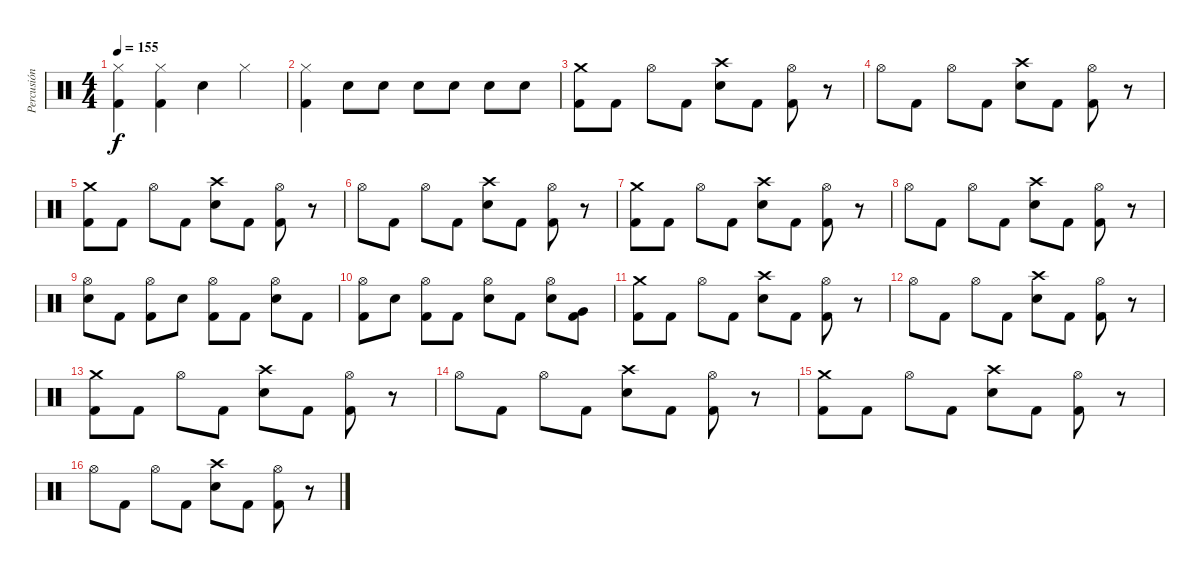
\track ("Percusión" "Percusión") {instrument percussion}
\staff {score}
\articulation defaults
\ts (4 4)
\tempo 155
\clef neutral
\ks c
("Hi-Hat (closed)" "Kick (hit) 2").4{dy f} ("Hi-Hat (closed)" "Kick (hit) 2").4 "Electric Snare (hit)".4 "Hi-Hat (closed)".4 |
("Hi-Hat (closed)" "Kick (hit) 2").4 "Electric Snare (hit)".8 "Electric Snare (hit)".8 "Electric Snare (hit)".8 "Electric Snare (hit)".8 "Electric Snare (hit)".8 "Electric Snare (hit)".8 |
("Crash medium (hit)" "Kick (hit) 2").8 "Kick (hit) 2".8 "Hi-Hat (open)".8 "Kick (hit) 2".8 ("Crash high (hit)" "Electric Snare (hit)").8 "Kick (hit) 2".8 ("Hi-Hat (open)" "Kick (hit) 2").8 r.8 |
"Hi-Hat (open)".8 "Kick (hit) 2".8 "Hi-Hat (open)".8 "Kick (hit) 2".8 ("Crash high (hit)" "Electric Snare (hit)").8 "Kick (hit) 2".8 ("Hi-Hat (open)" "Kick (hit) 2").8 r.8 |
("Crash medium (hit)" "Kick (hit) 2").8 "Kick (hit) 2".8 "Hi-Hat (open)".8 "Kick (hit) 2".8 ("Crash high (hit)" "Electric Snare (hit)").8 "Kick (hit) 2".8 ("Hi-Hat (open)" "Kick (hit) 2").8 r.8 |
"Hi-Hat (open)".8 "Kick (hit) 2".8 "Hi-Hat (open)".8 "Kick (hit) 2".8 ("Crash high (hit)" "Electric Snare (hit)").8 "Kick (hit) 2".8 ("Hi-Hat (open)" "Kick (hit) 2").8 r.8 |
("Crash medium (hit)" "Kick (hit) 2").8 "Kick (hit) 2".8 "Hi-Hat (open)".8 "Kick (hit) 2".8 ("Crash high (hit)" "Electric Snare (hit)").8 "Kick (hit) 2".8 ("Hi-Hat (open)" "Kick (hit) 2").8 r.8 |
"Hi-Hat (open)".8 "Kick (hit) 2".8 "Hi-Hat (open)".8 "Kick (hit) 2".8 ("Crash high (hit)" "Electric Snare (hit)").8 "Kick (hit) 2".8 ("Hi-Hat (open)" "Kick (hit) 2").8 r.8 |
("Hi-Hat (open)" "Electric Snare (hit)").8 "Kick (hit) 2".8 ("Hi-Hat (open)" "Kick (hit) 2").8 "Electric Snare (hit)".8 ("Hi-Hat (open)" "Kick (hit) 2").8 "Kick (hit) 2".8 ("Hi-Hat (open)" "Electric Snare (hit)").8 "Kick (hit) 2".8 |
("Hi-Hat (open)" "Kick (hit) 2").8 "Electric Snare (hit)".8 ("Hi-Hat (open)" "Kick (hit) 2").8 "Kick (hit) 2".8 ("Hi-Hat (open)" "Electric Snare (hit)").8 "Kick (hit) 2".8 ("Hi-Hat (open)" "Electric Snare (hit)").8 ("Very Low Tom (hit)" "Kick (hit) 2").8 |
("Crash medium (hit)" "Kick (hit) 2").8 "Kick (hit) 2".8 "Hi-Hat (open)".8 "Kick (hit) 2".8 ("Crash high (hit)" "Electric Snare (hit)").8 "Kick (hit) 2".8 ("Hi-Hat (open)" "Kick (hit) 2").8 r.8 |
"Hi-Hat (open)".8 "Kick (hit) 2".8 "Hi-Hat (open)".8 "Kick (hit) 2".8 ("Crash high (hit)" "Electric Snare (hit)").8 "Kick (hit) 2".8 ("Hi-Hat (open)" "Kick (hit) 2").8 r.8 |
("Crash medium (hit)" "Kick (hit) 2").8 "Kick (hit) 2".8 "Hi-Hat (open)".8 "Kick (hit) 2".8 ("Crash high (hit)" "Electric Snare (hit)").8 "Kick (hit) 2".8 ("Hi-Hat (open)" "Kick (hit) 2").8 r.8 |
"Hi-Hat (open)".8 "Kick (hit) 2".8 "Hi-Hat (open)".8 "Kick (hit) 2".8 ("Crash high (hit)" "Electric Snare (hit)").8 "Kick (hit) 2".8 ("Hi-Hat (open)" "Kick (hit) 2").8 r.8 |
("Crash medium (hit)" "Kick (hit) 2").8 "Kick (hit) 2".8 "Hi-Hat (open)".8 "Kick (hit) 2".8 ("Crash high (hit)" "Electric Snare (hit)").8 "Kick (hit) 2".8 ("Hi-Hat (open)" "Kick (hit) 2").8 r.8 |
"Hi-Hat (open)".8 "Kick (hit) 2".8 "Hi-Hat (open)".8 "Kick (hit) 2".8 ("Crash high (hit)" "Electric Snare (hit)").8 "Kick (hit) 2".8 ("Hi-Hat (open)" "Kick (hit) 2").8 r.8
